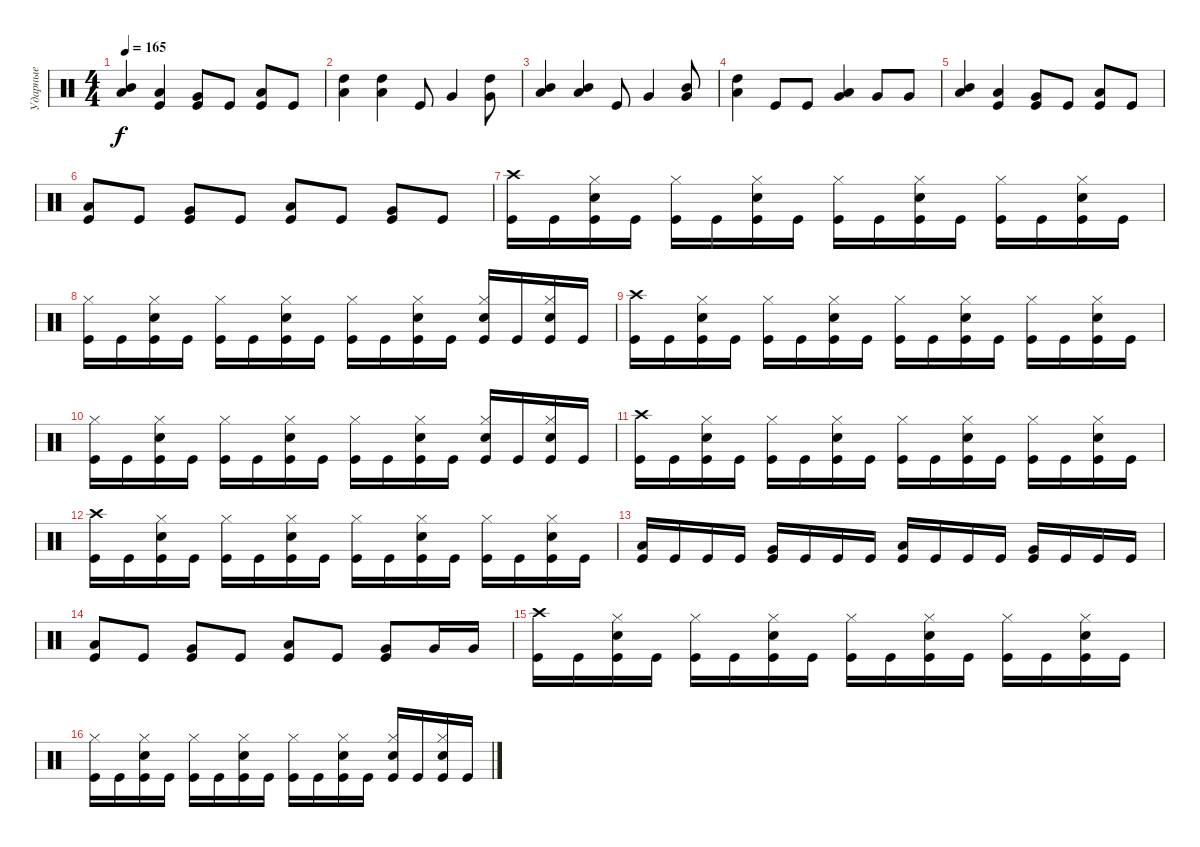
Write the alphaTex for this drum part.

\track ("Ударные" "Ударные") {instrument percussion}
\staff {score}
\articulation defaults
\ts (4 4)
\tempo 165
\clef neutral
\ks c
("Mid Tom (hit)" "Low Tom (hit)").4{dy f} ("Low Tom (hit)" "Kick (hit)").4 ("Very Low Tom (hit)" "Kick (hit)").8 "Kick (hit)".8 ("Low Tom (hit)" "Kick (hit)").8 "Kick (hit)".8 |
("High Tom (hit)" "Low Tom (hit)").4 ("High Tom (hit)" "Low Tom (hit)").4 "Kick (hit)".8 "Very Low Tom (hit)".4 ("High Tom (hit)" "Very Low Tom (hit)").8 |
("Mid Tom (hit)" "Low Tom (hit)").4 ("Mid Tom (hit)" "Low Tom (hit)").4 "Kick (hit)".8 "Very Low Tom (hit)".4 ("Mid Tom (hit)" "Very Low Tom (hit)").8 |
("High Tom (hit)" "Low Tom (hit)").4 "Kick (hit)".8 "Kick (hit)".8 ("Low Tom (hit)" "Very Low Tom (hit)").4 "Very Low Tom (hit)".8 "Very Low Tom (hit)".8 |
("Mid Tom (hit)" "Low Tom (hit)").4 ("Low Tom (hit)" "Kick (hit)").4 ("Very Low Tom (hit)" "Kick (hit)").8 "Kick (hit)".8 ("Low Tom (hit)" "Kick (hit)").8 "Kick (hit)".8 |
("Low Tom (hit)" "Kick (hit)").8 "Kick (hit)".8 ("Very Low Tom (hit)" "Kick (hit)").8 "Kick (hit)".8 ("Low Tom (hit)" "Kick (hit)").8 "Kick (hit)".8 ("Very Low Tom (hit)" "Kick (hit)").8 "Kick (hit)".8 |
("Crash high (hit)" "Kick (hit)").16 "Kick (hit)".16 ("Hi-Hat (closed)" "Electric Snare (hit)" "Kick (hit)").16 "Kick (hit)".16 ("Hi-Hat (closed)" "Kick (hit)").16 "Kick (hit)".16 ("Hi-Hat (closed)" "Electric Snare (hit)" "Kick (hit)").16 "Kick (hit)".16 ("Hi-Hat (closed)" "Kick (hit)").16 "Kick (hit)".16 ("Hi-Hat (closed)" "Electric Snare (hit)" "Kick (hit)").16 "Kick (hit)".16 ("Hi-Hat (closed)" "Kick (hit)").16 "Kick (hit)".16 ("Hi-Hat (closed)" "Electric Snare (hit)" "Kick (hit)").16 "Kick (hit)".16 |
("Hi-Hat (closed)" "Kick (hit)").16 "Kick (hit)".16 ("Hi-Hat (closed)" "Electric Snare (hit)" "Kick (hit)").16 "Kick (hit)".16 ("Hi-Hat (closed)" "Kick (hit)").16 "Kick (hit)".16 ("Hi-Hat (closed)" "Electric Snare (hit)" "Kick (hit)").16 "Kick (hit)".16 ("Hi-Hat (closed)" "Kick (hit)").16 "Kick (hit)".16 ("Hi-Hat (closed)" "Electric Snare (hit)" "Kick (hit)").16 "Kick (hit)".16 ("Hi-Hat (closed)" "Electric Snare (hit)" "Kick (hit)").16 "Kick (hit)".16 ("Hi-Hat (closed)" "Electric Snare (hit)" "Kick (hit)").16 "Kick (hit)".16 |
("Crash high (hit)" "Kick (hit)").16 "Kick (hit)".16 ("Hi-Hat (closed)" "Electric Snare (hit)" "Kick (hit)").16 "Kick (hit)".16 ("Hi-Hat (closed)" "Kick (hit)").16 "Kick (hit)".16 ("Hi-Hat (closed)" "Electric Snare (hit)" "Kick (hit)").16 "Kick (hit)".16 ("Hi-Hat (closed)" "Kick (hit)").16 "Kick (hit)".16 ("Hi-Hat (closed)" "Electric Snare (hit)" "Kick (hit)").16 "Kick (hit)".16 ("Hi-Hat (closed)" "Kick (hit)").16 "Kick (hit)".16 ("Hi-Hat (closed)" "Electric Snare (hit)" "Kick (hit)").16 "Kick (hit)".16 |
("Hi-Hat (closed)" "Kick (hit)").16 "Kick (hit)".16 ("Hi-Hat (closed)" "Electric Snare (hit)" "Kick (hit)").16 "Kick (hit)".16 ("Hi-Hat (closed)" "Kick (hit)").16 "Kick (hit)".16 ("Hi-Hat (closed)" "Electric Snare (hit)" "Kick (hit)").16 "Kick (hit)".16 ("Hi-Hat (closed)" "Kick (hit)").16 "Kick (hit)".16 ("Hi-Hat (closed)" "Electric Snare (hit)" "Kick (hit)").16 "Kick (hit)".16 ("Hi-Hat (closed)" "Electric Snare (hit)" "Kick (hit)").16 "Kick (hit)".16 ("Hi-Hat (closed)" "Electric Snare (hit)" "Kick (hit)").16 "Kick (hit)".16 |
("Crash high (hit)" "Kick (hit)").16 "Kick (hit)".16 ("Hi-Hat (closed)" "Electric Snare (hit)" "Kick (hit)").16 "Kick (hit)".16 ("Hi-Hat (closed)" "Kick (hit)").16 "Kick (hit)".16 ("Hi-Hat (closed)" "Electric Snare (hit)" "Kick (hit)").16 "Kick (hit)".16 ("Hi-Hat (closed)" "Kick (hit)").16 "Kick (hit)".16 ("Hi-Hat (closed)" "Electric Snare (hit)" "Kick (hit)").16 "Kick (hit)".16 ("Hi-Hat (closed)" "Kick (hit)").16 "Kick (hit)".16 ("Hi-Hat (closed)" "Electric Snare (hit)" "Kick (hit)").16 "Kick (hit)".16 |
("Crash high (hit)" "Kick (hit)").16 "Kick (hit)".16 ("Hi-Hat (closed)" "Electric Snare (hit)" "Kick (hit)").16 "Kick (hit)".16 ("Hi-Hat (closed)" "Kick (hit)").16 "Kick (hit)".16 ("Hi-Hat (closed)" "Electric Snare (hit)" "Kick (hit)").16 "Kick (hit)".16 ("Hi-Hat (closed)" "Kick (hit)").16 "Kick (hit)".16 ("Hi-Hat (closed)" "Electric Snare (hit)" "Kick (hit)").16 "Kick (hit)".16 ("Hi-Hat (closed)" "Kick (hit)").16 "Kick (hit)".16 ("Hi-Hat (closed)" "Electric Snare (hit)" "Kick (hit)").16 "Kick (hit)".16 |
("Low Tom (hit)" "Kick (hit)").16 "Kick (hit)".16 "Kick (hit)".16 "Kick (hit)".16 ("Very Low Tom (hit)" "Kick (hit)").16 "Kick (hit)".16 "Kick (hit)".16 "Kick (hit)".16 ("Low Tom (hit)" "Kick (hit)").16 "Kick (hit)".16 "Kick (hit)".16 "Kick (hit)".16 ("Very Low Tom (hit)" "Kick (hit)").16 "Kick (hit)".16 "Kick (hit)".16 "Kick (hit)".16 |
("Low Tom (hit)" "Kick (hit)").8 "Kick (hit)".8 ("Very Low Tom (hit)" "Kick (hit)").8 "Kick (hit)".8 ("Low Tom (hit)" "Kick (hit)").8 "Kick (hit)".8 ("Very Low Tom (hit)" "Kick (hit)").8 "Very Low Tom (hit)".16 "Very Low Tom (hit)".16 |
("Crash high (hit)" "Kick (hit)").16 "Kick (hit)".16 ("Hi-Hat (closed)" "Electric Snare (hit)" "Kick (hit)").16 "Kick (hit)".16 ("Hi-Hat (closed)" "Kick (hit)").16 "Kick (hit)".16 ("Hi-Hat (closed)" "Electric Snare (hit)" "Kick (hit)").16 "Kick (hit)".16 ("Hi-Hat (closed)" "Kick (hit)").16 "Kick (hit)".16 ("Hi-Hat (closed)" "Electric Snare (hit)" "Kick (hit)").16 "Kick (hit)".16 ("Hi-Hat (closed)" "Kick (hit)").16 "Kick (hit)".16 ("Hi-Hat (closed)" "Electric Snare (hit)" "Kick (hit)").16 "Kick (hit)".16 |
("Hi-Hat (closed)" "Kick (hit)").16 "Kick (hit)".16 ("Hi-Hat (closed)" "Electric Snare (hit)" "Kick (hit)").16 "Kick (hit)".16 ("Hi-Hat (closed)" "Kick (hit)").16 "Kick (hit)".16 ("Hi-Hat (closed)" "Electric Snare (hit)" "Kick (hit)").16 "Kick (hit)".16 ("Hi-Hat (closed)" "Kick (hit)").16 "Kick (hit)".16 ("Hi-Hat (closed)" "Electric Snare (hit)" "Kick (hit)").16 "Kick (hit)".16 ("Hi-Hat (closed)" "Electric Snare (hit)" "Kick (hit)").16 "Kick (hit)".16 ("Hi-Hat (closed)" "Electric Snare (hit)" "Kick (hit)").16 "Kick (hit)".16
